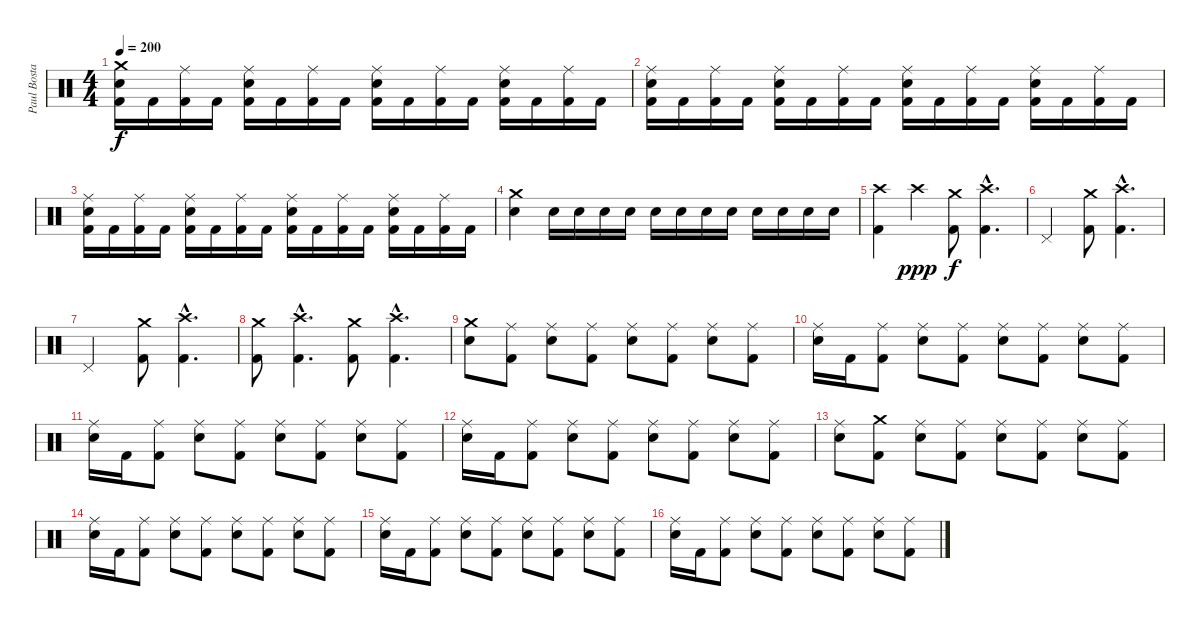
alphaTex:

\track ("Paul Bostaph" "Paul Bosta") {instrument percussion}
\staff {score}
\articulation defaults
\ts (4 4)
\tempo 200
\clef neutral
\ks c
("Kick (hit) 2" "Electric Snare (hit)" "Crash medium (hit)").16{dy f} "Kick (hit) 2".16 ("Kick (hit) 2" "Ride (middle)").16 "Kick (hit) 2".16 ("Kick (hit) 2" "Electric Snare (hit)" "Ride (middle)").16 "Kick (hit) 2".16 ("Kick (hit) 2" "Ride (middle)").16 "Kick (hit) 2".16 ("Kick (hit) 2" "Electric Snare (hit)" "Ride (middle)").16 "Kick (hit) 2".16 ("Kick (hit) 2" "Ride (middle)").16 "Kick (hit) 2".16 ("Kick (hit) 2" "Electric Snare (hit)" "Ride (middle)").16 "Kick (hit) 2".16 ("Kick (hit) 2" "Ride (middle)").16 "Kick (hit) 2".16 |
("Kick (hit) 2" "Electric Snare (hit)" "Ride (middle)").16 "Kick (hit) 2".16 ("Kick (hit) 2" "Ride (middle)").16 "Kick (hit) 2".16 ("Kick (hit) 2" "Electric Snare (hit)" "Ride (middle)").16 "Kick (hit) 2".16 ("Kick (hit) 2" "Ride (middle)").16 "Kick (hit) 2".16 ("Kick (hit) 2" "Electric Snare (hit)" "Ride (middle)").16 "Kick (hit) 2".16 ("Kick (hit) 2" "Ride (middle)").16 "Kick (hit) 2".16 ("Kick (hit) 2" "Electric Snare (hit)" "Ride (middle)").16 "Kick (hit) 2".16 ("Kick (hit) 2" "Ride (middle)").16 "Kick (hit) 2".16 |
("Kick (hit) 2" "Electric Snare (hit)" "Ride (middle)").16 "Kick (hit) 2".16 ("Kick (hit) 2" "Ride (middle)").16 "Kick (hit) 2".16 ("Kick (hit) 2" "Electric Snare (hit)" "Ride (middle)").16 "Kick (hit) 2".16 ("Kick (hit) 2" "Ride (middle)").16 "Kick (hit) 2".16 ("Kick (hit) 2" "Electric Snare (hit)" "Ride (middle)").16 "Kick (hit) 2".16 ("Kick (hit) 2" "Ride (middle)").16 "Kick (hit) 2".16 ("Kick (hit) 2" "Electric Snare (hit)" "Ride (middle)").16 "Kick (hit) 2".16 ("Kick (hit) 2" "Ride (middle)").16 "Kick (hit) 2".16 |
("Crash medium (hit)" "Electric Snare (hit)").4 "Electric Snare (hit)".16 "Electric Snare (hit)".16 "Electric Snare (hit)".16 "Electric Snare (hit)".16 "Electric Snare (hit)".16 "Electric Snare (hit)".16 "Electric Snare (hit)".16 "Electric Snare (hit)".16 "Electric Snare (hit)".16 "Electric Snare (hit)".16 "Electric Snare (hit)".16 "Electric Snare (hit)".16 |
("Crash high (hit)" "Kick (hit) 2").4 "Crash high (hit)".4{dy ppp} ("Crash medium (hit)" "Kick (hit) 2").8{dy f} ("Crash high (hit)"{hac} "Kick (hit) 2"{hac}).4{d} |
"Pedal Hi-Hat (hit)".2 ("Crash medium (hit)" "Kick (hit) 2").8 ("Crash high (hit)"{hac} "Kick (hit) 2"{hac}).4{d} |
"Pedal Hi-Hat (hit)".2 ("Crash medium (hit)" "Kick (hit) 2").8 ("Crash high (hit)"{hac} "Kick (hit) 2"{hac}).4{d} |
("Crash medium (hit)" "Kick (hit) 2").8 ("Crash high (hit)"{hac} "Kick (hit) 2"{hac}).4{d} ("Crash medium (hit)" "Kick (hit) 2").8 ("Crash high (hit)"{hac} "Kick (hit) 2"{hac}).4{d} |
("Electric Snare (hit)" "Crash medium (hit)").8 ("Kick (hit) 2" "Ride (middle)").8 ("Electric Snare (hit)" "Ride (middle)").8 ("Kick (hit) 2" "Ride (middle)").8 ("Electric Snare (hit)" "Ride (middle)").8 ("Kick (hit) 2" "Ride (middle)").8 ("Electric Snare (hit)" "Ride (middle)").8 ("Kick (hit) 2" "Ride (middle)").8 |
("Electric Snare (hit)" "Ride (middle)").16 "Kick (hit) 2".16 ("Kick (hit) 2" "Ride (middle)").8 ("Electric Snare (hit)" "Ride (middle)").8 ("Kick (hit) 2" "Ride (middle)").8 ("Electric Snare (hit)" "Ride (middle)").8 ("Kick (hit) 2" "Ride (middle)").8 ("Electric Snare (hit)" "Ride (middle)").8 ("Kick (hit) 2" "Ride (middle)").8 |
("Electric Snare (hit)" "Ride (middle)").16 "Kick (hit) 2".16 ("Kick (hit) 2" "Ride (middle)").8 ("Electric Snare (hit)" "Ride (middle)").8 ("Kick (hit) 2" "Ride (middle)").8 ("Electric Snare (hit)" "Ride (middle)").8 ("Kick (hit) 2" "Ride (middle)").8 ("Electric Snare (hit)" "Ride (middle)").8 ("Kick (hit) 2" "Ride (middle)").8 |
("Electric Snare (hit)" "Ride (middle)").16 "Kick (hit) 2".16 ("Kick (hit) 2" "Ride (middle)").8 ("Electric Snare (hit)" "Ride (middle)").8 ("Kick (hit) 2" "Ride (middle)").8 ("Electric Snare (hit)" "Ride (middle)").8 ("Kick (hit) 2" "Ride (middle)").8 ("Electric Snare (hit)" "Ride (middle)").8 ("Kick (hit) 2" "Ride (middle)").8 |
("Electric Snare (hit)" "Ride (middle)").8 ("Kick (hit) 2" "Crash medium (hit)").8 ("Electric Snare (hit)" "Ride (middle)").8 ("Kick (hit) 2" "Ride (middle)").8 ("Electric Snare (hit)" "Ride (middle)").8 ("Kick (hit) 2" "Ride (middle)").8 ("Electric Snare (hit)" "Ride (middle)").8 ("Kick (hit) 2" "Ride (middle)").8 |
("Electric Snare (hit)" "Ride (middle)").16 "Kick (hit) 2".16 ("Kick (hit) 2" "Ride (middle)").8 ("Electric Snare (hit)" "Ride (middle)").8 ("Kick (hit) 2" "Ride (middle)").8 ("Electric Snare (hit)" "Ride (middle)").8 ("Kick (hit) 2" "Ride (middle)").8 ("Electric Snare (hit)" "Ride (middle)").8 ("Kick (hit) 2" "Ride (middle)").8 |
("Electric Snare (hit)" "Ride (middle)").16 "Kick (hit) 2".16 ("Kick (hit) 2" "Ride (middle)").8 ("Electric Snare (hit)" "Ride (middle)").8 ("Kick (hit) 2" "Ride (middle)").8 ("Electric Snare (hit)" "Ride (middle)").8 ("Kick (hit) 2" "Ride (middle)").8 ("Electric Snare (hit)" "Ride (middle)").8 ("Kick (hit) 2" "Ride (middle)").8 |
("Electric Snare (hit)" "Ride (middle)").16 "Kick (hit) 2".16 ("Kick (hit) 2" "Ride (middle)").8 ("Electric Snare (hit)" "Ride (middle)").8 ("Kick (hit) 2" "Ride (middle)").8 ("Electric Snare (hit)" "Ride (middle)").8 ("Kick (hit) 2" "Ride (middle)").8 ("Electric Snare (hit)" "Ride (middle)").8 ("Kick (hit) 2" "Ride (middle)").8
